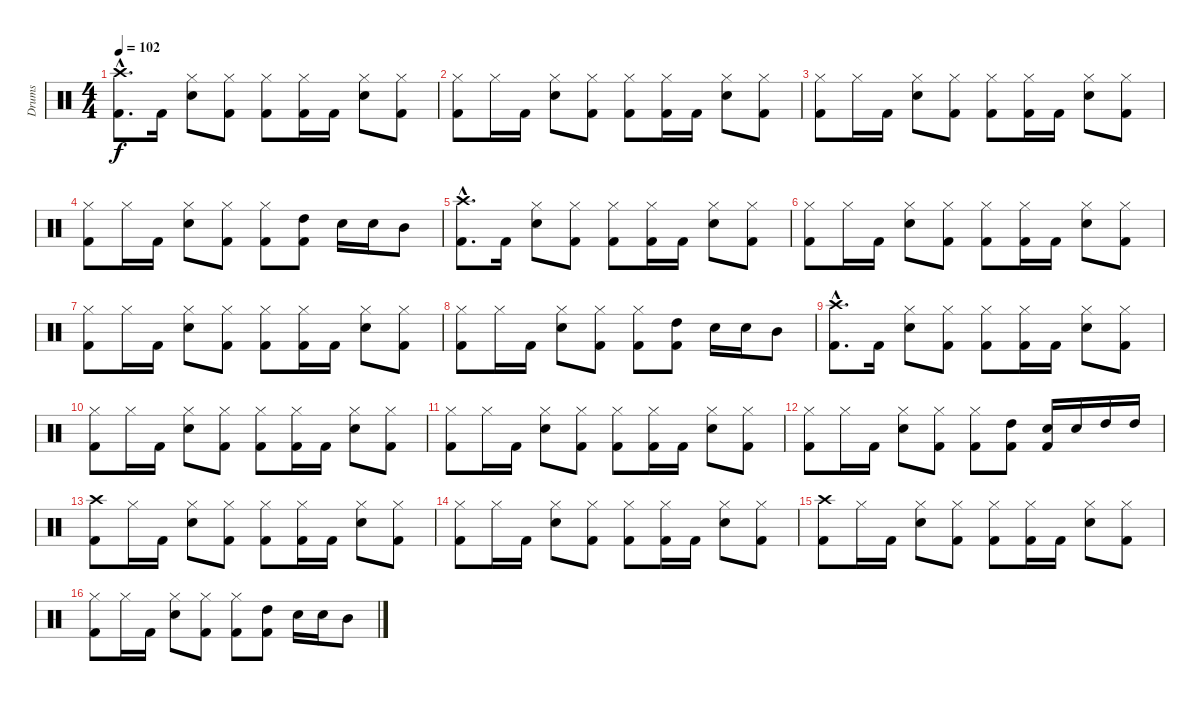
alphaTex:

\track ("Drums" "Drums") {instrument percussion}
\staff {score}
\articulation defaults
\ts (4 4)
\tempo 102
\clef neutral
\ks c
("Kick (hit) 2"{hac} "Crash high (hit)"{hac}).8{d dy f} "Kick (hit) 2".16 ("Snare (hit) 2" "Hi-Hat (closed)").8 ("Kick (hit) 2" "Hi-Hat (closed)").8 ("Kick (hit) 2" "Hi-Hat (closed)").8 ("Kick (hit) 2" "Hi-Hat (closed)").16 "Kick (hit) 2".16 ("Snare (hit) 2" "Hi-Hat (closed)").8 ("Kick (hit) 2" "Hi-Hat (closed)").8 |
("Kick (hit) 2" "Hi-Hat (closed)").8 "Hi-Hat (closed)".16 "Kick (hit) 2".16 ("Snare (hit) 2" "Hi-Hat (closed)").8 ("Kick (hit) 2" "Hi-Hat (closed)").8 ("Kick (hit) 2" "Hi-Hat (closed)").8 ("Kick (hit) 2" "Hi-Hat (closed)").16 "Kick (hit) 2".16 ("Snare (hit) 2" "Hi-Hat (closed)").8 ("Kick (hit) 2" "Hi-Hat (closed)").8 |
("Kick (hit) 2" "Hi-Hat (closed)").8 "Hi-Hat (closed)".16 "Kick (hit) 2".16 ("Snare (hit) 2" "Hi-Hat (closed)").8 ("Kick (hit) 2" "Hi-Hat (closed)").8 ("Kick (hit) 2" "Hi-Hat (closed)").8 ("Kick (hit) 2" "Hi-Hat (closed)").16 "Kick (hit) 2".16 ("Snare (hit) 2" "Hi-Hat (closed)").8 ("Kick (hit) 2" "Hi-Hat (closed)").8 |
("Kick (hit) 2" "Hi-Hat (closed)").8 "Hi-Hat (closed)".16 "Kick (hit) 2".16 ("Snare (hit) 2" "Hi-Hat (closed)").8 ("Kick (hit) 2" "Hi-Hat (closed)").8 ("Kick (hit) 2" "Hi-Hat (closed)").8 ("Kick (hit) 2" "High Tom (hit)").8 "Snare (hit) 2".16 "Snare (hit) 2".16 "Mid Tom (hit)".8 |
("Kick (hit) 2"{hac} "Crash high (hit)"{hac}).8{d} "Kick (hit) 2".16 ("Snare (hit) 2" "Hi-Hat (closed)").8 ("Kick (hit) 2" "Hi-Hat (closed)").8 ("Kick (hit) 2" "Hi-Hat (closed)").8 ("Kick (hit) 2" "Hi-Hat (closed)").16 "Kick (hit) 2".16 ("Snare (hit) 2" "Hi-Hat (closed)").8 ("Kick (hit) 2" "Hi-Hat (closed)").8 |
("Kick (hit) 2" "Hi-Hat (closed)").8 "Hi-Hat (closed)".16 "Kick (hit) 2".16 ("Snare (hit) 2" "Hi-Hat (closed)").8 ("Kick (hit) 2" "Hi-Hat (closed)").8 ("Kick (hit) 2" "Hi-Hat (closed)").8 ("Kick (hit) 2" "Hi-Hat (closed)").16 "Kick (hit) 2".16 ("Snare (hit) 2" "Hi-Hat (closed)").8 ("Kick (hit) 2" "Hi-Hat (closed)").8 |
("Kick (hit) 2" "Hi-Hat (closed)").8 "Hi-Hat (closed)".16 "Kick (hit) 2".16 ("Snare (hit) 2" "Hi-Hat (closed)").8 ("Kick (hit) 2" "Hi-Hat (closed)").8 ("Kick (hit) 2" "Hi-Hat (closed)").8 ("Kick (hit) 2" "Hi-Hat (closed)").16 "Kick (hit) 2".16 ("Snare (hit) 2" "Hi-Hat (closed)").8 ("Kick (hit) 2" "Hi-Hat (closed)").8 |
("Kick (hit) 2" "Hi-Hat (closed)").8 "Hi-Hat (closed)".16 "Kick (hit) 2".16 ("Snare (hit) 2" "Hi-Hat (closed)").8 ("Kick (hit) 2" "Hi-Hat (closed)").8 ("Kick (hit) 2" "Hi-Hat (closed)").8 ("Kick (hit) 2" "High Tom (hit)").8 "Snare (hit) 2".16 "Snare (hit) 2".16 "Mid Tom (hit)".8 |
("Kick (hit) 2"{hac} "Crash high (hit)"{hac}).8{d} "Kick (hit) 2".16 ("Snare (hit) 2" "Hi-Hat (closed)").8 ("Kick (hit) 2" "Hi-Hat (closed)").8 ("Kick (hit) 2" "Hi-Hat (closed)").8 ("Kick (hit) 2" "Hi-Hat (closed)").16 "Kick (hit) 2".16 ("Snare (hit) 2" "Hi-Hat (closed)").8 ("Kick (hit) 2" "Hi-Hat (closed)").8 |
("Kick (hit) 2" "Hi-Hat (closed)").8 "Hi-Hat (closed)".16 "Kick (hit) 2".16 ("Snare (hit) 2" "Hi-Hat (closed)").8 ("Kick (hit) 2" "Hi-Hat (closed)").8 ("Kick (hit) 2" "Hi-Hat (closed)").8 ("Kick (hit) 2" "Hi-Hat (closed)").16 "Kick (hit) 2".16 ("Snare (hit) 2" "Hi-Hat (closed)").8 ("Kick (hit) 2" "Hi-Hat (closed)").8 |
("Kick (hit) 2" "Hi-Hat (closed)").8 "Hi-Hat (closed)".16 "Kick (hit) 2".16 ("Snare (hit) 2" "Hi-Hat (closed)").8 ("Kick (hit) 2" "Hi-Hat (closed)").8 ("Kick (hit) 2" "Hi-Hat (closed)").8 ("Kick (hit) 2" "Hi-Hat (closed)").16 "Kick (hit) 2".16 ("Snare (hit) 2" "Hi-Hat (closed)").8 ("Kick (hit) 2" "Hi-Hat (closed)").8 |
("Kick (hit) 2" "Hi-Hat (closed)").8 "Hi-Hat (closed)".16 "Kick (hit) 2".16 ("Snare (hit) 2" "Hi-Hat (closed)").8 ("Kick (hit) 2" "Hi-Hat (closed)").8 ("Kick (hit) 2" "Hi-Hat (closed)").8 ("Kick (hit) 2" "High Tom (hit)").8 ("Kick (hit) 2" "Snare (hit) 2").16 "Snare (hit) 2".16 "High Tom (hit)".16 "High Tom (hit)".16 |
("Kick (hit) 2" "Crash high (hit)").8 "Hi-Hat (closed)".16 "Kick (hit) 2".16 ("Snare (hit) 2" "Hi-Hat (closed)").8 ("Kick (hit) 2" "Hi-Hat (closed)").8 ("Kick (hit) 2" "Hi-Hat (closed)").8 ("Kick (hit) 2" "Hi-Hat (closed)").16 "Kick (hit) 2".16 ("Snare (hit) 2" "Hi-Hat (closed)").8 ("Kick (hit) 2" "Hi-Hat (closed)").8 |
("Kick (hit) 2" "Hi-Hat (closed)").8 "Hi-Hat (closed)".16 "Kick (hit) 2".16 ("Snare (hit) 2" "Hi-Hat (closed)").8 ("Kick (hit) 2" "Hi-Hat (closed)").8 ("Kick (hit) 2" "Hi-Hat (closed)").8 ("Kick (hit) 2" "Hi-Hat (closed)").16 "Kick (hit) 2".16 ("Snare (hit) 2" "Hi-Hat (closed)").8 ("Kick (hit) 2" "Hi-Hat (closed)").8 |
("Kick (hit) 2" "Crash high (hit)").8 "Hi-Hat (closed)".16 "Kick (hit) 2".16 ("Snare (hit) 2" "Hi-Hat (closed)").8 ("Kick (hit) 2" "Hi-Hat (closed)").8 ("Kick (hit) 2" "Hi-Hat (closed)").8 ("Kick (hit) 2" "Hi-Hat (closed)").16 "Kick (hit) 2".16 ("Snare (hit) 2" "Hi-Hat (closed)").8 ("Kick (hit) 2" "Hi-Hat (closed)").8 |
("Kick (hit) 2" "Hi-Hat (closed)").8 "Hi-Hat (closed)".16 "Kick (hit) 2".16 ("Snare (hit) 2" "Hi-Hat (closed)").8 ("Kick (hit) 2" "Hi-Hat (closed)").8 ("Kick (hit) 2" "Hi-Hat (closed)").8 ("Kick (hit) 2" "High Tom (hit)").8 "Snare (hit) 2".16 "Snare (hit) 2".16 "Mid Tom (hit)".8
